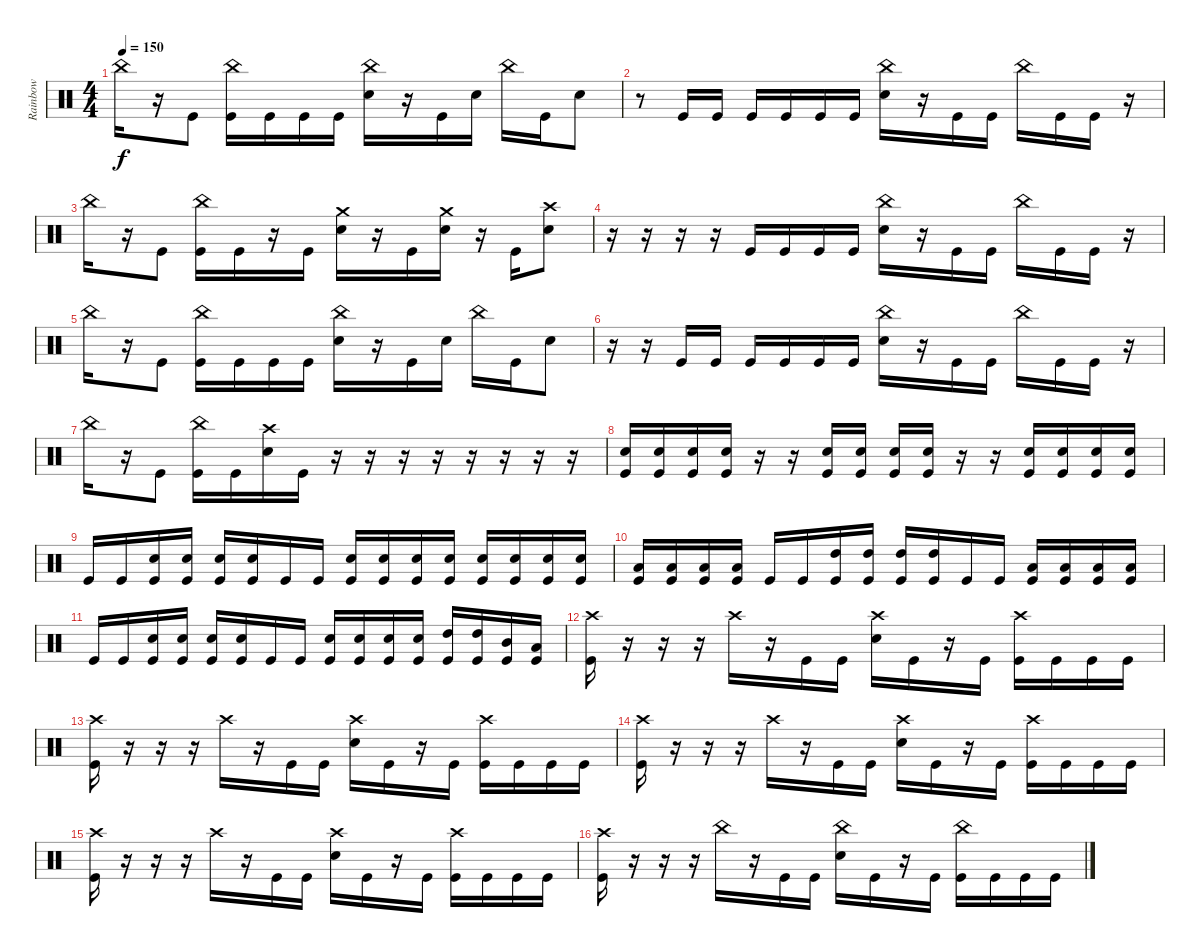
\track ("Rainbow" "Rainbow") {instrument percussion}
\staff {score}
\articulation defaults
\ts (4 4)
\tempo 150
\clef neutral
\ks c "China (hit)".16{dy f}
r.16 "Kick (hit)".8 ("China (hit)" "Kick (hit)").16 "Kick (hit)".16 "Kick (hit)".16 "Kick (hit)".16 ("China (hit)" "Electric Snare (hit)").16 r.16 "Kick (hit)".16 "Electric Snare (hit)".16 "China (hit)".16 "Kick (hit)".16 "Electric Snare (hit)".8 |
r.8 "Kick (hit)".16 "Kick (hit)".16 "Kick (hit)".16 "Kick (hit)".16 "Kick (hit)".16 "Kick (hit)".16 ("China (hit)" "Electric Snare (hit)").16 r.16 "Kick (hit)".16 "Kick (hit)".16 "China (hit)".16 "Kick (hit)".16 "Kick (hit)".16 r.16 |
"China (hit)".16 r.16 "Kick (hit)".8 ("China (hit)" "Kick (hit)").16 "Kick (hit)".16 r.16 "Kick (hit)".16 ("Crash medium (hit)" "Electric Snare (hit)").16 r.16 "Kick (hit)".16 ("Crash medium (hit)" "Electric Snare (hit)").16 r.16 "Kick (hit)".16 ("Crash high (hit)" "Electric Snare (hit)").8 |
r.16 r.16 r.16 r.16 "Kick (hit)".16 "Kick (hit)".16 "Kick (hit)".16 "Kick (hit)".16 ("China (hit)" "Electric Snare (hit)").16 r.16 "Kick (hit)".16 "Kick (hit)".16 "China (hit)".16 "Kick (hit)".16 "Kick (hit)".16 r.16 |
"China (hit)".16 r.16 "Kick (hit)".8 ("China (hit)" "Kick (hit)").16 "Kick (hit)".16 "Kick (hit)".16 "Kick (hit)".16 ("China (hit)" "Electric Snare (hit)").16 r.16 "Kick (hit)".16 "Electric Snare (hit)".16 "China (hit)".16 "Kick (hit)".16 "Electric Snare (hit)".8 |
r.16 r.16 "Kick (hit)".16 "Kick (hit)".16 "Kick (hit)".16 "Kick (hit)".16 "Kick (hit)".16 "Kick (hit)".16 ("China (hit)" "Electric Snare (hit)").16 r.16 "Kick (hit)".16 "Kick (hit)".16 "China (hit)".16 "Kick (hit)".16 "Kick (hit)".16 r.16 |
"China (hit)".16 r.16 "Kick (hit)".8 ("China (hit)" "Kick (hit)").16 "Kick (hit)".16 ("Crash high (hit)" "Electric Snare (hit)").16 "Kick (hit)".16 r.16 r.16 r.16 r.16 r.16 r.16 r.16 r.16 |
("Electric Snare (hit)" "Kick (hit)").16 ("Electric Snare (hit)" "Kick (hit)").16 ("Electric Snare (hit)" "Kick (hit)").16 ("Electric Snare (hit)" "Kick (hit)").16 r.16 r.16 ("Electric Snare (hit)" "Kick (hit)").16 ("Electric Snare (hit)" "Kick (hit)").16 ("Electric Snare (hit)" "Kick (hit)").16 ("Electric Snare (hit)" "Kick (hit)").16 r.16 r.16 ("Electric Snare (hit)" "Kick (hit)").16 ("Electric Snare (hit)" "Kick (hit)").16 ("Electric Snare (hit)" "Kick (hit)").16 ("Electric Snare (hit)" "Kick (hit)").16 |
"Kick (hit)".16 "Kick (hit)".16 ("Electric Snare (hit)" "Kick (hit)").16 ("Electric Snare (hit)" "Kick (hit)").16 ("Electric Snare (hit)" "Kick (hit)").16 ("Electric Snare (hit)" "Kick (hit)").16 "Kick (hit)".16 "Kick (hit)".16 ("Electric Snare (hit)" "Kick (hit)").16 ("Electric Snare (hit)" "Kick (hit)").16 ("Electric Snare (hit)" "Kick (hit)").16 ("Electric Snare (hit)" "Kick (hit)").16 ("Electric Snare (hit)" "Kick (hit)").16 ("Electric Snare (hit)" "Kick (hit)").16 ("Electric Snare (hit)" "Kick (hit)").16 ("Electric Snare (hit)" "Kick (hit)").16 |
("Low Tom (hit)" "Kick (hit)").16 ("Low Tom (hit)" "Kick (hit)").16 ("Low Tom (hit)" "Kick (hit)").16 ("Low Tom (hit)" "Kick (hit)").16 "Kick (hit)".16 "Kick (hit)".16 ("High Tom (hit)" "Kick (hit)").16 ("High Tom (hit)" "Kick (hit)").16 ("High Tom (hit)" "Kick (hit)").16 ("High Tom (hit)" "Kick (hit)").16 "Kick (hit)".16 "Kick (hit)".16 ("Low Tom (hit)" "Kick (hit)").16 ("Low Tom (hit)" "Kick (hit)").16 ("Low Tom (hit)" "Kick (hit)").16 ("Low Tom (hit)" "Kick (hit)").16 |
"Kick (hit)".16 "Kick (hit)".16 ("Electric Snare (hit)" "Kick (hit)").16 ("Electric Snare (hit)" "Kick (hit)").16 ("Electric Snare (hit)" "Kick (hit)").16 ("Electric Snare (hit)" "Kick (hit)").16 "Kick (hit)".16 "Kick (hit)".16 ("Electric Snare (hit)" "Kick (hit)").16 ("Electric Snare (hit)" "Kick (hit)").16 ("Electric Snare (hit)" "Kick (hit)").16 ("Electric Snare (hit)" "Kick (hit)").16 ("High Tom (hit)" "Kick (hit)").16 ("High Tom (hit)" "Kick (hit)").16 ("Mid Tom (hit)" "Kick (hit)").16 ("Low Tom (hit)" "Kick (hit)").16 |
("Crash high (hit)" "Kick (hit)").16 r.16 r.16 r.16 "Crash high (hit)".16 r.16 "Kick (hit)".16 "Kick (hit)".16 ("Crash high (hit)" "Electric Snare (hit)").16 "Kick (hit)".16 r.16 "Kick (hit)".16 ("Crash high (hit)" "Kick (hit)").16 "Kick (hit)".16 "Kick (hit)".16 "Kick (hit)".16 |
("Crash high (hit)" "Kick (hit)").16 r.16 r.16 r.16 "Crash high (hit)".16 r.16 "Kick (hit)".16 "Kick (hit)".16 ("Crash high (hit)" "Electric Snare (hit)").16 "Kick (hit)".16 r.16 "Kick (hit)".16 ("Crash high (hit)" "Kick (hit)").16 "Kick (hit)".16 "Kick (hit)".16 "Kick (hit)".16 |
("Crash high (hit)" "Kick (hit)").16 r.16 r.16 r.16 "Crash high (hit)".16 r.16 "Kick (hit)".16 "Kick (hit)".16 ("Crash high (hit)" "Electric Snare (hit)").16 "Kick (hit)".16 r.16 "Kick (hit)".16 ("Crash high (hit)" "Kick (hit)").16 "Kick (hit)".16 "Kick (hit)".16 "Kick (hit)".16 |
("Crash high (hit)" "Kick (hit)").16 r.16 r.16 r.16 "Crash high (hit)".16 r.16 "Kick (hit)".16 "Kick (hit)".16 ("Crash high (hit)" "Electric Snare (hit)").16 "Kick (hit)".16 r.16 "Kick (hit)".16 ("Crash high (hit)" "Kick (hit)").16 "Kick (hit)".16 "Kick (hit)".16 "Kick (hit)".16 |
("Crash high (hit)" "Kick (hit)").16 r.16 r.16 r.16 "China (hit)".16 r.16 "Kick (hit)".16 "Kick (hit)".16 ("China (hit)" "Electric Snare (hit)").16 "Kick (hit)".16 r.16 "Kick (hit)".16 ("China (hit)" "Kick (hit)").16 "Kick (hit)".16 "Kick (hit)".16 "Kick (hit)".16
